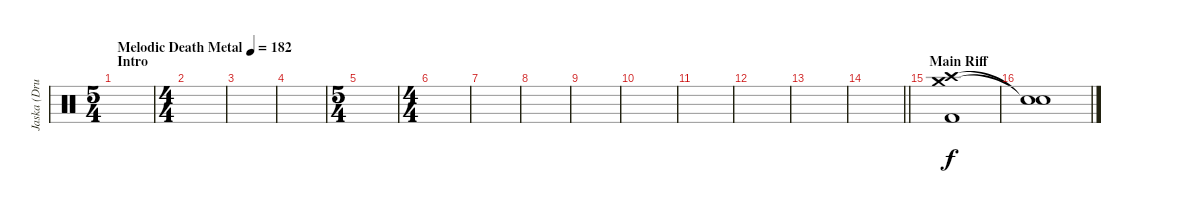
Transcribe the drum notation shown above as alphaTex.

\track ("Jaska (Drums)" "Jaska (Dru") {instrument percussion}
\staff {score}
\articulation defaults
\ts (5 4)
\section ("" "Intro")
\tempo (182 "Melodic Death Metal")
\clef neutral
\ks c
|
\ts (4 4)
|
|
|
\ts (5 4)
|
\ts (4 4)
|
|
|
|
|
|
|
|
\barLineRight lightlight
|
\section ("" "Main Riff")
("Crash medium (hit)" "Crash high (hit)" "Kick (hit) 2").1{volume 16 balance 8} |
("Snare (hit)"{t} "Snare (hit)"{t}).1
